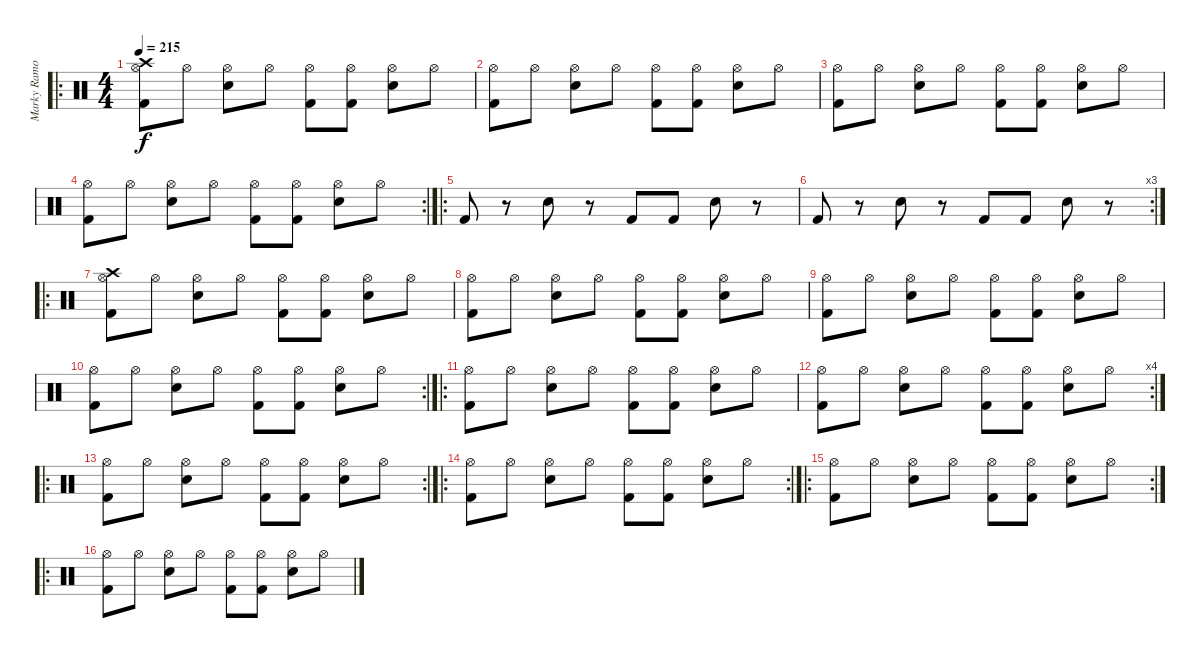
\track ("Marky Ramone (Drums)" "Marky Ramo") {instrument percussion}
\staff {score}
\articulation defaults
\ro
\ts (4 4)
\tempo 215
\clef neutral
\ks c
("Crash high (hit)" "Kick (hit) 2" "Hi-Hat (open)").8{dy f} "Hi-Hat (open)".8 ("Electric Snare (hit)" "Hi-Hat (open)").8 "Hi-Hat (open)".8 ("Kick (hit) 2" "Hi-Hat (open)").8 ("Kick (hit) 2" "Hi-Hat (open)").8 ("Electric Snare (hit)" "Hi-Hat (open)").8 "Hi-Hat (open)".8 |
("Kick (hit) 2" "Hi-Hat (open)").8 "Hi-Hat (open)".8 ("Electric Snare (hit)" "Hi-Hat (open)").8 "Hi-Hat (open)".8 ("Kick (hit) 2" "Hi-Hat (open)").8 ("Kick (hit) 2" "Hi-Hat (open)").8 ("Electric Snare (hit)" "Hi-Hat (open)").8 "Hi-Hat (open)".8 |
("Kick (hit) 2" "Hi-Hat (open)").8 "Hi-Hat (open)".8 ("Electric Snare (hit)" "Hi-Hat (open)").8 "Hi-Hat (open)".8 ("Kick (hit) 2" "Hi-Hat (open)").8 ("Kick (hit) 2" "Hi-Hat (open)").8 ("Electric Snare (hit)" "Hi-Hat (open)").8 "Hi-Hat (open)".8 |
\rc 2
("Kick (hit) 2" "Hi-Hat (open)").8 "Hi-Hat (open)".8 ("Electric Snare (hit)" "Hi-Hat (open)").8 "Hi-Hat (open)".8 ("Kick (hit) 2" "Hi-Hat (open)").8 ("Kick (hit) 2" "Hi-Hat (open)").8 ("Electric Snare (hit)" "Hi-Hat (open)").8 "Hi-Hat (open)".8 |
\ro "Kick (hit) 2".8
r.8 "Electric Snare (hit)".8 r.8 "Kick (hit) 2".8 "Kick (hit) 2".8 "Electric Snare (hit)".8 r.8 |
\rc 3 "Kick (hit) 2".8
r.8 "Electric Snare (hit)".8 r.8 "Kick (hit) 2".8 "Kick (hit) 2".8 "Electric Snare (hit)".8 r.8 |
\ro
("Crash high (hit)" "Kick (hit) 2" "Hi-Hat (open)").8 "Hi-Hat (open)".8 ("Electric Snare (hit)" "Hi-Hat (open)").8 "Hi-Hat (open)".8 ("Kick (hit) 2" "Hi-Hat (open)").8 ("Kick (hit) 2" "Hi-Hat (open)").8 ("Electric Snare (hit)" "Hi-Hat (open)").8 "Hi-Hat (open)".8 |
("Kick (hit) 2" "Hi-Hat (open)").8 "Hi-Hat (open)".8 ("Electric Snare (hit)" "Hi-Hat (open)").8 "Hi-Hat (open)".8 ("Kick (hit) 2" "Hi-Hat (open)").8 ("Kick (hit) 2" "Hi-Hat (open)").8 ("Electric Snare (hit)" "Hi-Hat (open)").8 "Hi-Hat (open)".8 |
("Kick (hit) 2" "Hi-Hat (open)").8 "Hi-Hat (open)".8 ("Electric Snare (hit)" "Hi-Hat (open)").8 "Hi-Hat (open)".8 ("Kick (hit) 2" "Hi-Hat (open)").8 ("Kick (hit) 2" "Hi-Hat (open)").8 ("Electric Snare (hit)" "Hi-Hat (open)").8 "Hi-Hat (open)".8 |
\rc 2
("Kick (hit) 2" "Hi-Hat (open)").8 "Hi-Hat (open)".8 ("Electric Snare (hit)" "Hi-Hat (open)").8 "Hi-Hat (open)".8 ("Kick (hit) 2" "Hi-Hat (open)").8 ("Kick (hit) 2" "Hi-Hat (open)").8 ("Electric Snare (hit)" "Hi-Hat (open)").8 "Hi-Hat (open)".8 |
\ro
("Kick (hit) 2" "Hi-Hat (open)").8 "Hi-Hat (open)".8 ("Electric Snare (hit)" "Hi-Hat (open)").8 "Hi-Hat (open)".8 ("Kick (hit) 2" "Hi-Hat (open)").8 ("Kick (hit) 2" "Hi-Hat (open)").8 ("Electric Snare (hit)" "Hi-Hat (open)").8 "Hi-Hat (open)".8 |
\rc 4
("Kick (hit) 2" "Hi-Hat (open)").8 "Hi-Hat (open)".8 ("Electric Snare (hit)" "Hi-Hat (open)").8 "Hi-Hat (open)".8 ("Kick (hit) 2" "Hi-Hat (open)").8 ("Kick (hit) 2" "Hi-Hat (open)").8 ("Electric Snare (hit)" "Hi-Hat (open)").8 "Hi-Hat (open)".8 |
\ro
\rc 2
("Kick (hit) 2" "Hi-Hat (open)").8 "Hi-Hat (open)".8 ("Electric Snare (hit)" "Hi-Hat (open)").8 "Hi-Hat (open)".8 ("Kick (hit) 2" "Hi-Hat (open)").8 ("Kick (hit) 2" "Hi-Hat (open)").8 ("Electric Snare (hit)" "Hi-Hat (open)").8 "Hi-Hat (open)".8 |
\ro
\rc 2
("Kick (hit) 2" "Hi-Hat (open)").8 "Hi-Hat (open)".8 ("Electric Snare (hit)" "Hi-Hat (open)").8 "Hi-Hat (open)".8 ("Kick (hit) 2" "Hi-Hat (open)").8 ("Kick (hit) 2" "Hi-Hat (open)").8 ("Electric Snare (hit)" "Hi-Hat (open)").8 "Hi-Hat (open)".8 |
\ro
\rc 2
("Kick (hit) 2" "Hi-Hat (open)").8 "Hi-Hat (open)".8 ("Electric Snare (hit)" "Hi-Hat (open)").8 "Hi-Hat (open)".8 ("Kick (hit) 2" "Hi-Hat (open)").8 ("Kick (hit) 2" "Hi-Hat (open)").8 ("Electric Snare (hit)" "Hi-Hat (open)").8 "Hi-Hat (open)".8 |
\ro
("Kick (hit) 2" "Hi-Hat (open)").8 "Hi-Hat (open)".8 ("Electric Snare (hit)" "Hi-Hat (open)").8 "Hi-Hat (open)".8 ("Kick (hit) 2" "Hi-Hat (open)").8 ("Kick (hit) 2" "Hi-Hat (open)").8 ("Electric Snare (hit)" "Hi-Hat (open)").8 "Hi-Hat (open)".8
